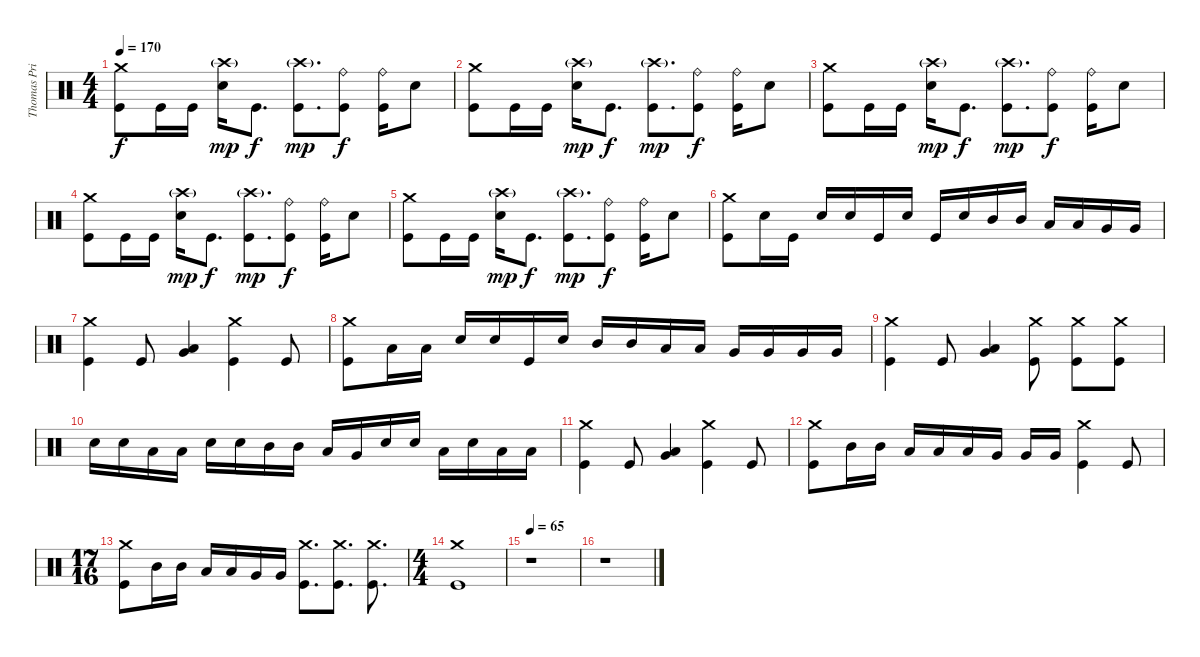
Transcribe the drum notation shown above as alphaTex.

\track ("Thomas Pridgen [Drum]" "Thomas Pri") {instrument percussion}
\staff {score}
\articulation defaults
\ts (4 4)
\tempo 170
\clef neutral
\ks c
("Crash medium (hit)" "Kick (hit)").8{dy f} "Kick (hit)".16 "Kick (hit)".16 ("Crash high (hit)"{g} "Electric Snare (hit)").16{dy mp} "Kick (hit)".8{d dy f} ("Crash high (hit)"{g} "Kick (hit)").8{d dy mp} ("Ride (bell)" "Kick (hit)").8{dy f} ("Ride (bell)" "Kick (hit)").16 "Electric Snare (hit)".8 |
("Crash medium (hit)" "Kick (hit)").8 "Kick (hit)".16 "Kick (hit)".16 ("Crash high (hit)"{g} "Electric Snare (hit)").16{dy mp} "Kick (hit)".8{d dy f} ("Crash high (hit)"{g} "Kick (hit)").8{d dy mp} ("Ride (bell)" "Kick (hit)").8{dy f} ("Ride (bell)" "Kick (hit)").16 "Electric Snare (hit)".8 |
("Crash medium (hit)" "Kick (hit)").8 "Kick (hit)".16 "Kick (hit)".16 ("Crash high (hit)"{g} "Electric Snare (hit)").16{dy mp} "Kick (hit)".8{d dy f} ("Crash high (hit)"{g} "Kick (hit)").8{d dy mp} ("Ride (bell)" "Kick (hit)").8{dy f} ("Ride (bell)" "Kick (hit)").16 "Electric Snare (hit)".8 |
("Crash medium (hit)" "Kick (hit)").8 "Kick (hit)".16 "Kick (hit)".16 ("Crash high (hit)"{g} "Electric Snare (hit)").16{dy mp} "Kick (hit)".8{d dy f} ("Crash high (hit)"{g} "Kick (hit)").8{d dy mp} ("Ride (bell)" "Kick (hit)").8{dy f} ("Ride (bell)" "Kick (hit)").16 "Electric Snare (hit)".8 |
("Crash medium (hit)" "Kick (hit)").8 "Kick (hit)".16 "Kick (hit)".16 ("Crash high (hit)"{g} "Electric Snare (hit)").16{dy mp} "Kick (hit)".8{d dy f} ("Crash high (hit)"{g} "Kick (hit)").8{d dy mp} ("Ride (bell)" "Kick (hit)").8{dy f} ("Ride (bell)" "Kick (hit)").16 "Electric Snare (hit)".8 |
("Crash medium (hit)" "Kick (hit)").8 "Electric Snare (hit)".16 "Kick (hit)".16 "Electric Snare (hit)".16 "Electric Snare (hit)".16 "Kick (hit)".16 "Electric Snare (hit)".16 "Kick (hit)".16 "Electric Snare (hit)".16 "Mid Tom (hit)".16 "Mid Tom (hit)".16 "Low Tom (hit)".16 "Low Tom (hit)".16 "Very Low Tom (hit)".16 "Very Low Tom (hit)".16 |
("Crash medium (hit)" "Kick (hit)").4 "Kick (hit)".8 ("Low Tom (hit)" "Very Low Tom (hit)").4 ("Crash medium (hit)" "Kick (hit)").4 "Kick (hit)".8 |
("Crash medium (hit)" "Kick (hit)").8 "Low Tom (hit)".16 "Low Tom (hit)".16 "Electric Snare (hit)".16 "Electric Snare (hit)".16 "Kick (hit)".16 "Electric Snare (hit)".16 "Mid Tom (hit)".16 "Mid Tom (hit)".16 "Low Tom (hit)".16 "Low Tom (hit)".16 "Very Low Tom (hit)".16 "Very Low Tom (hit)".16 "Very Low Tom (hit)".16 "Very Low Tom (hit)".16 |
("Crash medium (hit)" "Kick (hit)").4 "Kick (hit)".8 ("Low Tom (hit)" "Very Low Tom (hit)").4 ("Crash medium (hit)" "Kick (hit)").8 ("Crash medium (hit)" "Kick (hit)").8 ("Crash medium (hit)" "Kick (hit)").8 |
"Electric Snare (hit)".16 "Electric Snare (hit)".16 "Low Tom (hit)".16 "Low Tom (hit)".16 "Electric Snare (hit)".16 "Electric Snare (hit)".16 "Mid Tom (hit)".16 "Mid Tom (hit)".16 "Low Tom (hit)".16 "Very Low Tom (hit)".16 "Electric Snare (hit)".16 "Electric Snare (hit)".16 "Low Tom (hit)".16 "Electric Snare (hit)".16 "Low Tom (hit)".16 "Low Tom (hit)".16 |
("Crash medium (hit)" "Kick (hit)").4 "Kick (hit)".8 ("Low Tom (hit)" "Very Low Tom (hit)").4 ("Crash medium (hit)" "Kick (hit)").4 "Kick (hit)".8 |
("Crash medium (hit)" "Kick (hit)").8 "Mid Tom (hit)".16 "Mid Tom (hit)".16 "Low Tom (hit)".16 "Low Tom (hit)".16 "Low Tom (hit)".16 "Very Low Tom (hit)".16 "Very Low Tom (hit)".16 "Very Low Tom (hit)".16 ("Crash medium (hit)" "Kick (hit)").4 "Kick (hit)".8 |
\ts (17 16)
("Crash medium (hit)" "Kick (hit)").8 "Mid Tom (hit)".16 "Mid Tom (hit)".16 "Low Tom (hit)".16 "Low Tom (hit)".16 "Very Low Tom (hit)".16 "Very Low Tom (hit)".16 ("Crash medium (hit)" "Kick (hit)").8{d} ("Crash medium (hit)" "Kick (hit)").8{d} ("Crash medium (hit)" "Kick (hit)").8{d} |
\ts (4 4)
("Crash medium (hit)" "Kick (hit)").1 |
\tempo 65
r.1 |
r.1
